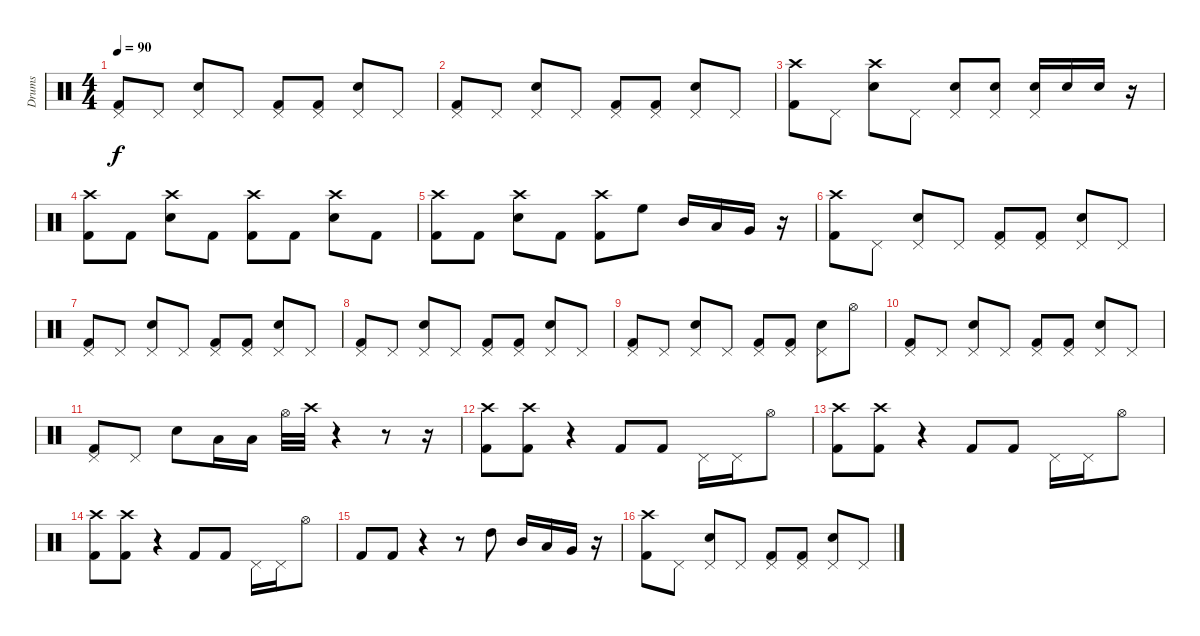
\track ("Drums" "Drums") {instrument percussion}
\staff {score}
\articulation defaults
\ts (4 4)
\tempo 90
\clef neutral
\ks c
("Pedal Hi-Hat (hit)" "Kick (hit) 2").8{dy f} "Pedal Hi-Hat (hit)".8 ("Pedal Hi-Hat (hit)" "Snare (hit) 2").8 "Pedal Hi-Hat (hit)".8 ("Pedal Hi-Hat (hit)" "Kick (hit) 2").8 ("Pedal Hi-Hat (hit)" "Kick (hit) 2").8 ("Pedal Hi-Hat (hit)" "Snare (hit) 2").8 "Pedal Hi-Hat (hit)".8 |
("Pedal Hi-Hat (hit)" "Kick (hit) 2").8 "Pedal Hi-Hat (hit)".8 ("Pedal Hi-Hat (hit)" "Snare (hit) 2").8 "Pedal Hi-Hat (hit)".8 ("Pedal Hi-Hat (hit)" "Kick (hit) 2").8 ("Pedal Hi-Hat (hit)" "Kick (hit) 2").8 ("Pedal Hi-Hat (hit)" "Snare (hit) 2").8 "Pedal Hi-Hat (hit)".8 |
("Crash high (hit)" "Kick (hit) 2").8 "Pedal Hi-Hat (hit)".8 ("Crash high (hit)" "Snare (hit) 2").8 "Pedal Hi-Hat (hit)".8 ("Pedal Hi-Hat (hit)" "Snare (hit) 2").8 ("Pedal Hi-Hat (hit)" "Snare (hit) 2").8 ("Pedal Hi-Hat (hit)" "Snare (hit) 2").16 "Snare (hit) 2".16 "Snare (hit) 2".16 r.16 |
("Crash high (hit)" "Kick (hit) 2").8 "Kick (hit) 2".8 ("Crash high (hit)" "Snare (hit) 2").8 "Kick (hit) 2".8 ("Crash high (hit)" "Kick (hit) 2").8 "Kick (hit) 2".8 ("Crash high (hit)" "Snare (hit) 2").8 "Kick (hit) 2".8 |
("Crash high (hit)" "Kick (hit) 2").8 "Kick (hit) 2".8 ("Crash high (hit)" "Snare (hit) 2").8 "Kick (hit) 2".8 ("Crash high (hit)" "Kick (hit) 2").8 "High Floor Tom (hit)".8 "Mid Tom (hit)".16 "Low Tom (hit)".16 "Very Low Tom (hit)".16 r.16 |
("Crash high (hit)" "Kick (hit) 2").8 "Pedal Hi-Hat (hit)".8 ("Pedal Hi-Hat (hit)" "Snare (hit) 2").8 "Pedal Hi-Hat (hit)".8 ("Pedal Hi-Hat (hit)" "Kick (hit) 2").8 ("Pedal Hi-Hat (hit)" "Kick (hit) 2").8 ("Pedal Hi-Hat (hit)" "Snare (hit) 2").8 "Pedal Hi-Hat (hit)".8 |
("Pedal Hi-Hat (hit)" "Kick (hit) 2").8 "Pedal Hi-Hat (hit)".8 ("Pedal Hi-Hat (hit)" "Snare (hit) 2").8 "Pedal Hi-Hat (hit)".8 ("Pedal Hi-Hat (hit)" "Kick (hit) 2").8 ("Pedal Hi-Hat (hit)" "Kick (hit) 2").8 ("Pedal Hi-Hat (hit)" "Snare (hit) 2").8 "Pedal Hi-Hat (hit)".8 |
("Pedal Hi-Hat (hit)" "Kick (hit) 2").8 "Pedal Hi-Hat (hit)".8 ("Pedal Hi-Hat (hit)" "Snare (hit) 2").8 "Pedal Hi-Hat (hit)".8 ("Pedal Hi-Hat (hit)" "Kick (hit) 2").8 ("Pedal Hi-Hat (hit)" "Kick (hit) 2").8 ("Pedal Hi-Hat (hit)" "Snare (hit) 2").8 "Pedal Hi-Hat (hit)".8 |
("Pedal Hi-Hat (hit)" "Kick (hit) 2").8 "Pedal Hi-Hat (hit)".8 ("Pedal Hi-Hat (hit)" "Snare (hit) 2").8 "Pedal Hi-Hat (hit)".8 ("Pedal Hi-Hat (hit)" "Kick (hit) 2").8 ("Pedal Hi-Hat (hit)" "Kick (hit) 2").8 ("Pedal Hi-Hat (hit)" "Snare (hit) 2").8 "Hi-Hat (open)".8 |
("Pedal Hi-Hat (hit)" "Kick (hit) 2").8 "Pedal Hi-Hat (hit)".8 ("Pedal Hi-Hat (hit)" "Snare (hit) 2").8 "Pedal Hi-Hat (hit)".8 ("Pedal Hi-Hat (hit)" "Kick (hit) 2").8 ("Pedal Hi-Hat (hit)" "Kick (hit) 2").8 ("Pedal Hi-Hat (hit)" "Snare (hit) 2").8 "Pedal Hi-Hat (hit)".8 |
("Pedal Hi-Hat (hit)" "Kick (hit) 2").8 "Pedal Hi-Hat (hit)".8 "Snare (hit) 2".8 "Low Tom (hit)".16 "Low Tom (hit)".16 "Hi-Hat (open)".32 "Crash high (hit)".32 r.4 r.8 r.16 |
("Crash high (hit)" "Kick (hit) 2").8 ("Crash high (hit)" "Kick (hit) 2").8 r.4 "Kick (hit) 2".8 "Kick (hit) 2".8 "Pedal Hi-Hat (hit)".16 "Pedal Hi-Hat (hit)".16 "Hi-Hat (open)".8 |
("Crash high (hit)" "Kick (hit) 2").8 ("Crash high (hit)" "Kick (hit) 2").8 r.4 "Kick (hit) 2".8 "Kick (hit) 2".8 "Pedal Hi-Hat (hit)".16 "Pedal Hi-Hat (hit)".16 "Hi-Hat (open)".8 |
("Crash high (hit)" "Kick (hit) 2").8 ("Crash high (hit)" "Kick (hit) 2").8 r.4 "Kick (hit) 2".8 "Kick (hit) 2".8 "Pedal Hi-Hat (hit)".16 "Pedal Hi-Hat (hit)".16 "Hi-Hat (open)".8 |
"Kick (hit) 2".8 "Kick (hit) 2".8 r.4 r.8 "High Tom (hit)".8 "Mid Tom (hit)".16 "Low Tom (hit)".16 "Very Low Tom (hit)".16 r.16 |
("Crash high (hit)" "Kick (hit) 2").8 "Pedal Hi-Hat (hit)".8 ("Pedal Hi-Hat (hit)" "Snare (hit) 2").8 "Pedal Hi-Hat (hit)".8 ("Pedal Hi-Hat (hit)" "Kick (hit) 2").8 ("Pedal Hi-Hat (hit)" "Kick (hit) 2").8 ("Pedal Hi-Hat (hit)" "Snare (hit) 2").8 "Pedal Hi-Hat (hit)".8
